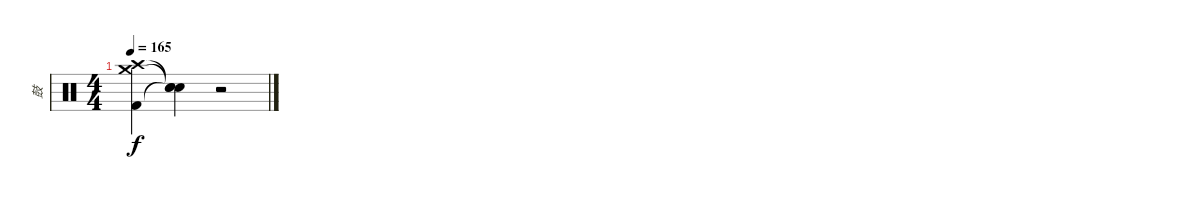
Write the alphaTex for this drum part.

\track ("鼓" "鼓") {instrument percussion}
\staff {score}
\articulation defaults
\ts (4 4)
\tempo 165
\clef neutral
\ks c
("Crash high (hit)" "Crash medium (hit)" "Kick (hit) 2").4{dy f} ("Snare (hit)"{t} "Snare (hit)"{t} "Snare (hit)"{t}).4 r.2
